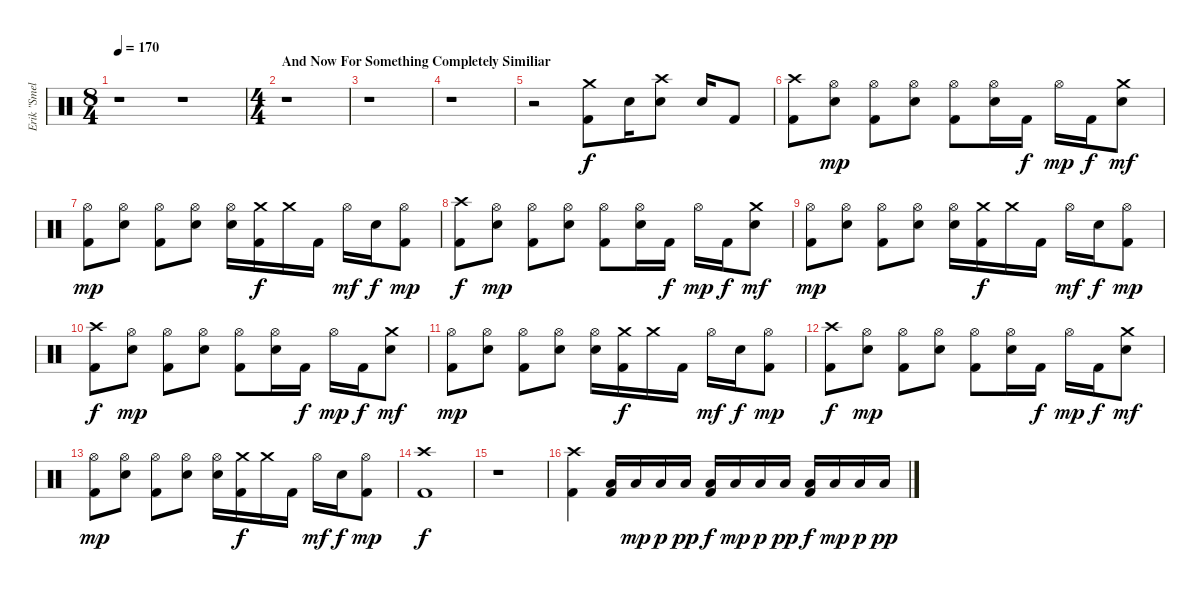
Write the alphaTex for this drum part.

\track ("Erik \"Smelly\" - Drums" "Erik \"Smel") {instrument percussion}
\staff {score}
\articulation defaults
\ts (8 4)
\tempo 170
\tempo 140
\tempo 170
\clef neutral
\ks c
r.1{dy f} r.1 |
\ts (4 4)
\section ("" "And Now For Something Completely Similiar")
r.1 |
r.1 |
r.1 |
r.2 ("Crash medium (hit)" "Kick (hit) 2").8 "Electric Snare (hit)".16 ("Crash high (hit)" "Electric Snare (hit)").8 "Electric Snare (hit)".16 "Kick (hit) 2".8 |
("Crash high (hit)" "Kick (hit) 2").8 ("Hi-Hat (open)" "Electric Snare (hit)").8{dy mp} ("Hi-Hat (open)" "Kick (hit) 2").8 ("Hi-Hat (open)" "Electric Snare (hit)").8 ("Hi-Hat (open)" "Kick (hit) 2").8 ("Hi-Hat (open)" "Electric Snare (hit)").16 "Kick (hit) 2".16{dy f} "Hi-Hat (open)".16{dy mp} "Kick (hit) 2".16{dy f} ("Crash medium (hit)" "Electric Snare (hit)").8{dy mf} |
("Hi-Hat (open)" "Kick (hit) 2").8{dy mp} ("Hi-Hat (open)" "Electric Snare (hit)").8 ("Hi-Hat (open)" "Kick (hit) 2").8 ("Hi-Hat (open)" "Electric Snare (hit)").8 ("Hi-Hat (open)" "Electric Snare (hit)").16 ("Crash medium (hit)" "Kick (hit) 2").16{dy f} "Crash medium (hit)".16 "Kick (hit) 2".16 "Hi-Hat (open)".16{dy mf} "Electric Snare (hit)".16{dy f} ("Hi-Hat (open)" "Kick (hit) 2").8{dy mp} |
("Crash high (hit)" "Kick (hit) 2").8{dy f} ("Hi-Hat (open)" "Electric Snare (hit)").8{dy mp} ("Hi-Hat (open)" "Kick (hit) 2").8 ("Hi-Hat (open)" "Electric Snare (hit)").8 ("Hi-Hat (open)" "Kick (hit) 2").8 ("Hi-Hat (open)" "Electric Snare (hit)").16 "Kick (hit) 2".16{dy f} "Hi-Hat (open)".16{dy mp} "Kick (hit) 2".16{dy f} ("Crash medium (hit)" "Electric Snare (hit)").8{dy mf} |
("Hi-Hat (open)" "Kick (hit) 2").8{dy mp} ("Hi-Hat (open)" "Electric Snare (hit)").8 ("Hi-Hat (open)" "Kick (hit) 2").8 ("Hi-Hat (open)" "Electric Snare (hit)").8 ("Hi-Hat (open)" "Electric Snare (hit)").16 ("Crash medium (hit)" "Kick (hit) 2").16{dy f} "Crash medium (hit)".16 "Kick (hit) 2".16 "Hi-Hat (open)".16{dy mf} "Electric Snare (hit)".16{dy f} ("Hi-Hat (open)" "Kick (hit) 2").8{dy mp} |
("Crash high (hit)" "Kick (hit) 2").8{dy f} ("Hi-Hat (open)" "Electric Snare (hit)").8{dy mp} ("Hi-Hat (open)" "Kick (hit) 2").8 ("Hi-Hat (open)" "Electric Snare (hit)").8 ("Hi-Hat (open)" "Kick (hit) 2").8 ("Hi-Hat (open)" "Electric Snare (hit)").16 "Kick (hit) 2".16{dy f} "Hi-Hat (open)".16{dy mp} "Kick (hit) 2".16{dy f} ("Crash medium (hit)" "Electric Snare (hit)").8{dy mf} |
("Hi-Hat (open)" "Kick (hit) 2").8{dy mp} ("Hi-Hat (open)" "Electric Snare (hit)").8 ("Hi-Hat (open)" "Kick (hit) 2").8 ("Hi-Hat (open)" "Electric Snare (hit)").8 ("Hi-Hat (open)" "Electric Snare (hit)").16 ("Crash medium (hit)" "Kick (hit) 2").16{dy f} "Crash medium (hit)".16 "Kick (hit) 2".16 "Hi-Hat (open)".16{dy mf} "Electric Snare (hit)".16{dy f} ("Hi-Hat (open)" "Kick (hit) 2").8{dy mp} |
("Crash high (hit)" "Kick (hit) 2").8{dy f} ("Hi-Hat (open)" "Electric Snare (hit)").8{dy mp} ("Hi-Hat (open)" "Kick (hit) 2").8 ("Hi-Hat (open)" "Electric Snare (hit)").8 ("Hi-Hat (open)" "Kick (hit) 2").8 ("Hi-Hat (open)" "Electric Snare (hit)").16 "Kick (hit) 2".16{dy f} "Hi-Hat (open)".16{dy mp} "Kick (hit) 2".16{dy f} ("Crash medium (hit)" "Electric Snare (hit)").8{dy mf} |
("Hi-Hat (open)" "Kick (hit) 2").8{dy mp} ("Hi-Hat (open)" "Electric Snare (hit)").8 ("Hi-Hat (open)" "Kick (hit) 2").8 ("Hi-Hat (open)" "Electric Snare (hit)").8 ("Hi-Hat (open)" "Electric Snare (hit)").16 ("Crash medium (hit)" "Kick (hit) 2").16{dy f} "Crash medium (hit)".16 "Kick (hit) 2".16 "Hi-Hat (open)".16{dy mf} "Electric Snare (hit)".16{dy f} ("Hi-Hat (open)" "Kick (hit) 2").8{dy mp} |
("Crash high (hit)" "Kick (hit) 2").1{dy f} |
r.1 |
("Crash high (hit)" "Kick (hit) 2").4 ("Low Tom (hit)" "Kick (hit) 2").16 "Low Tom (hit)".16{dy mp} "Low Tom (hit)".16{dy p} "Low Tom (hit)".16{dy pp} ("Low Tom (hit)" "Kick (hit) 2").16{dy f} "Low Tom (hit)".16{dy mp} "Low Tom (hit)".16{dy p} "Low Tom (hit)".16{dy pp} ("Low Tom (hit)" "Kick (hit) 2").16{dy f} "Low Tom (hit)".16{dy mp} "Low Tom (hit)".16{dy p} "Low Tom (hit)".16{dy pp}
